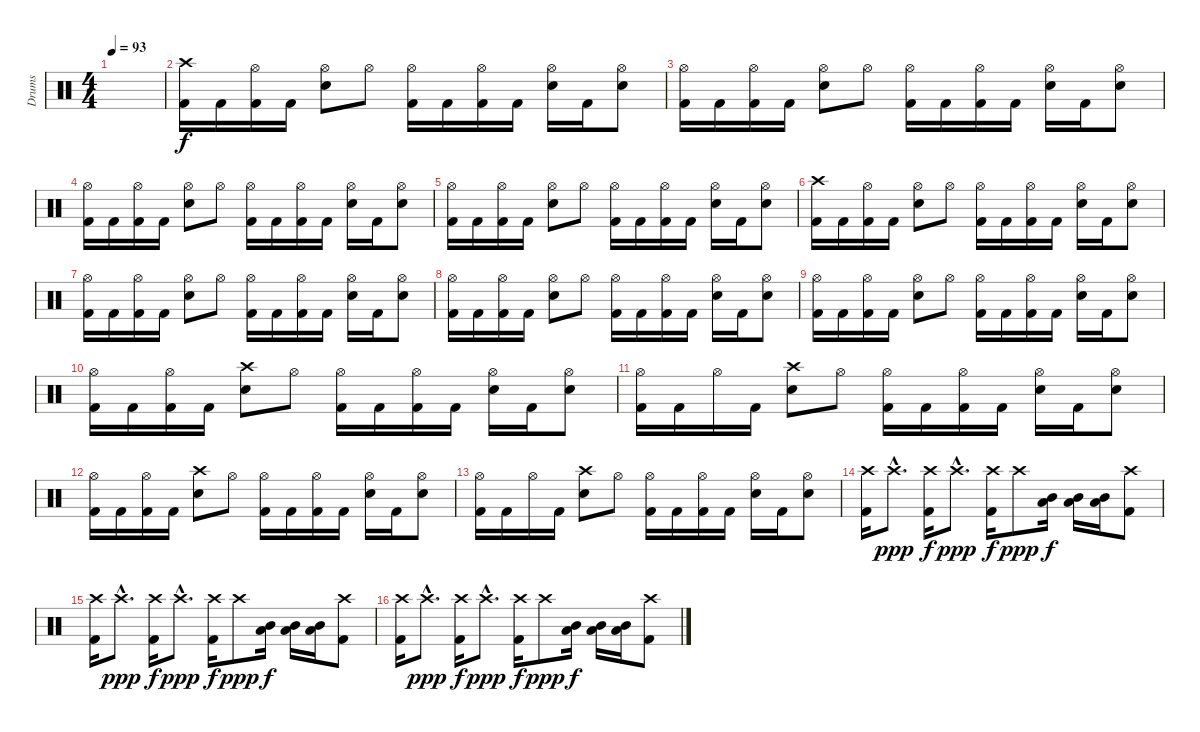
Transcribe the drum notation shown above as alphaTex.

\track ("Drums" "Drums") {instrument percussion}
\staff {score}
\articulation defaults
\ts (4 4)
\tempo 93
\clef neutral
\ks c
|
("Crash high (hit)" "Kick (hit) 2").16 "Kick (hit) 2".16 ("Hi-Hat (open)" "Kick (hit) 2").16 "Kick (hit) 2".16 ("Hi-Hat (open)" "Electric Snare (hit)").8 "Hi-Hat (open)".8 ("Hi-Hat (open)" "Kick (hit) 2").16 "Kick (hit) 2".16 ("Hi-Hat (open)" "Kick (hit) 2").16 "Kick (hit) 2".16 ("Hi-Hat (open)" "Electric Snare (hit)").16 "Kick (hit) 2".16 ("Hi-Hat (open)" "Electric Snare (hit)").8 |
("Hi-Hat (open)" "Kick (hit) 2").16 "Kick (hit) 2".16 ("Hi-Hat (open)" "Kick (hit) 2").16 "Kick (hit) 2".16 ("Hi-Hat (open)" "Electric Snare (hit)").8 "Hi-Hat (open)".8 ("Hi-Hat (open)" "Kick (hit) 2").16 "Kick (hit) 2".16 ("Hi-Hat (open)" "Kick (hit) 2").16 "Kick (hit) 2".16 ("Hi-Hat (open)" "Electric Snare (hit)").16 "Kick (hit) 2".16 ("Hi-Hat (open)" "Electric Snare (hit)").8 |
("Hi-Hat (open)" "Kick (hit) 2").16 "Kick (hit) 2".16 ("Hi-Hat (open)" "Kick (hit) 2").16 "Kick (hit) 2".16 ("Hi-Hat (open)" "Electric Snare (hit)").8 "Hi-Hat (open)".8 ("Hi-Hat (open)" "Kick (hit) 2").16 "Kick (hit) 2".16 ("Hi-Hat (open)" "Kick (hit) 2").16 "Kick (hit) 2".16 ("Hi-Hat (open)" "Electric Snare (hit)").16 "Kick (hit) 2".16 ("Hi-Hat (open)" "Electric Snare (hit)").8 |
("Hi-Hat (open)" "Kick (hit) 2").16 "Kick (hit) 2".16 ("Hi-Hat (open)" "Kick (hit) 2").16 "Kick (hit) 2".16 ("Hi-Hat (open)" "Electric Snare (hit)").8 "Hi-Hat (open)".8 ("Hi-Hat (open)" "Kick (hit) 2").16 "Kick (hit) 2".16 ("Hi-Hat (open)" "Kick (hit) 2").16 "Kick (hit) 2".16 ("Hi-Hat (open)" "Electric Snare (hit)").16 "Kick (hit) 2".16 ("Hi-Hat (open)" "Electric Snare (hit)").8 |
("Crash high (hit)" "Kick (hit) 2").16 "Kick (hit) 2".16 ("Hi-Hat (open)" "Kick (hit) 2").16 "Kick (hit) 2".16 ("Hi-Hat (open)" "Electric Snare (hit)").8 "Hi-Hat (open)".8 ("Hi-Hat (open)" "Kick (hit) 2").16 "Kick (hit) 2".16 ("Hi-Hat (open)" "Kick (hit) 2").16 "Kick (hit) 2".16 ("Hi-Hat (open)" "Electric Snare (hit)").16 "Kick (hit) 2".16 ("Hi-Hat (open)" "Electric Snare (hit)").8 |
("Hi-Hat (open)" "Kick (hit) 2").16 "Kick (hit) 2".16 ("Hi-Hat (open)" "Kick (hit) 2").16 "Kick (hit) 2".16 ("Hi-Hat (open)" "Electric Snare (hit)").8 "Hi-Hat (open)".8 ("Hi-Hat (open)" "Kick (hit) 2").16 "Kick (hit) 2".16 ("Hi-Hat (open)" "Kick (hit) 2").16 "Kick (hit) 2".16 ("Hi-Hat (open)" "Electric Snare (hit)").16 "Kick (hit) 2".16 ("Hi-Hat (open)" "Electric Snare (hit)").8 |
("Hi-Hat (open)" "Kick (hit) 2").16 "Kick (hit) 2".16 ("Hi-Hat (open)" "Kick (hit) 2").16 "Kick (hit) 2".16 ("Hi-Hat (open)" "Electric Snare (hit)").8 "Hi-Hat (open)".8 ("Hi-Hat (open)" "Kick (hit) 2").16 "Kick (hit) 2".16 ("Hi-Hat (open)" "Kick (hit) 2").16 "Kick (hit) 2".16 ("Hi-Hat (open)" "Electric Snare (hit)").16 "Kick (hit) 2".16 ("Hi-Hat (open)" "Electric Snare (hit)").8 |
("Hi-Hat (open)" "Kick (hit) 2").16 "Kick (hit) 2".16 ("Hi-Hat (open)" "Kick (hit) 2").16 "Kick (hit) 2".16 ("Hi-Hat (open)" "Electric Snare (hit)").8 "Hi-Hat (open)".8 ("Hi-Hat (open)" "Kick (hit) 2").16 "Kick (hit) 2".16 ("Hi-Hat (open)" "Kick (hit) 2").16 "Kick (hit) 2".16 ("Hi-Hat (open)" "Electric Snare (hit)").16 "Kick (hit) 2".16 ("Hi-Hat (open)" "Electric Snare (hit)").8 |
("Hi-Hat (open)" "Kick (hit) 2").16 "Kick (hit) 2".16 ("Hi-Hat (open)" "Kick (hit) 2").16 "Kick (hit) 2".16 ("Crash high (hit)" "Electric Snare (hit)").8 "Hi-Hat (open)".8 ("Hi-Hat (open)" "Kick (hit) 2").16 "Kick (hit) 2".16 ("Hi-Hat (open)" "Kick (hit) 2").16 "Kick (hit) 2".16 ("Hi-Hat (open)" "Electric Snare (hit)").16 "Kick (hit) 2".16 ("Hi-Hat (open)" "Electric Snare (hit)").8 |
("Hi-Hat (open)" "Kick (hit) 2").16 "Kick (hit) 2".16 "Hi-Hat (open)".16 "Kick (hit) 2".16 ("Crash high (hit)" "Electric Snare (hit)").8 "Hi-Hat (open)".8 ("Hi-Hat (open)" "Kick (hit) 2").16 "Kick (hit) 2".16 ("Hi-Hat (open)" "Kick (hit) 2").16 "Kick (hit) 2".16 ("Hi-Hat (open)" "Electric Snare (hit)").16 "Kick (hit) 2".16 ("Hi-Hat (open)" "Electric Snare (hit)").8 |
("Hi-Hat (open)" "Kick (hit) 2").16 "Kick (hit) 2".16 ("Hi-Hat (open)" "Kick (hit) 2").16 "Kick (hit) 2".16 ("Crash high (hit)" "Electric Snare (hit)").8 "Hi-Hat (open)".8 ("Hi-Hat (open)" "Kick (hit) 2").16 "Kick (hit) 2".16 ("Hi-Hat (open)" "Kick (hit) 2").16 "Kick (hit) 2".16 ("Hi-Hat (open)" "Electric Snare (hit)").16 "Kick (hit) 2".16 ("Hi-Hat (open)" "Electric Snare (hit)").8 |
("Hi-Hat (open)" "Kick (hit) 2").16 "Kick (hit) 2".16 "Hi-Hat (open)".16 "Kick (hit) 2".16 ("Crash high (hit)" "Electric Snare (hit)").8 "Hi-Hat (open)".8 ("Hi-Hat (open)" "Kick (hit) 2").16 "Kick (hit) 2".16 ("Hi-Hat (open)" "Kick (hit) 2").16 "Kick (hit) 2".16 ("Hi-Hat (open)" "Electric Snare (hit)").16 "Kick (hit) 2".16 ("Hi-Hat (open)" "Electric Snare (hit)").8 |
("Crash high (hit)" "Kick (hit) 2").16 "Crash high (hit)"{hac}.8{d dy ppp} ("Crash high (hit)" "Kick (hit) 2").16{dy f} "Crash high (hit)"{hac}.8{d dy ppp} ("Crash high (hit)" "Kick (hit) 2").16{dy f} "Crash high (hit)".8{dy ppp} ("Mid Tom (hit)" "Low Tom (hit)").16{dy f} ("Mid Tom (hit)" "Low Tom (hit)").16 ("Mid Tom (hit)" "Low Tom (hit)").16 ("Crash high (hit)" "Kick (hit) 2").8 |
("Crash high (hit)" "Kick (hit) 2").16 "Crash high (hit)"{hac}.8{d dy ppp} ("Crash high (hit)" "Kick (hit) 2").16{dy f} "Crash high (hit)"{hac}.8{d dy ppp} ("Crash high (hit)" "Kick (hit) 2").16{dy f} "Crash high (hit)".8{dy ppp} ("Mid Tom (hit)" "Low Tom (hit)").16{dy f} ("Mid Tom (hit)" "Low Tom (hit)").16 ("Mid Tom (hit)" "Low Tom (hit)").16 ("Crash high (hit)" "Kick (hit) 2").8 |
("Crash high (hit)" "Kick (hit) 2").16 "Crash high (hit)"{hac}.8{d dy ppp} ("Crash high (hit)" "Kick (hit) 2").16{dy f} "Crash high (hit)"{hac}.8{d dy ppp} ("Crash high (hit)" "Kick (hit) 2").16{dy f} "Crash high (hit)".8{dy ppp} ("Mid Tom (hit)" "Low Tom (hit)").16{dy f} ("Mid Tom (hit)" "Low Tom (hit)").16 ("Mid Tom (hit)" "Low Tom (hit)").16 ("Crash high (hit)" "Kick (hit) 2").8
